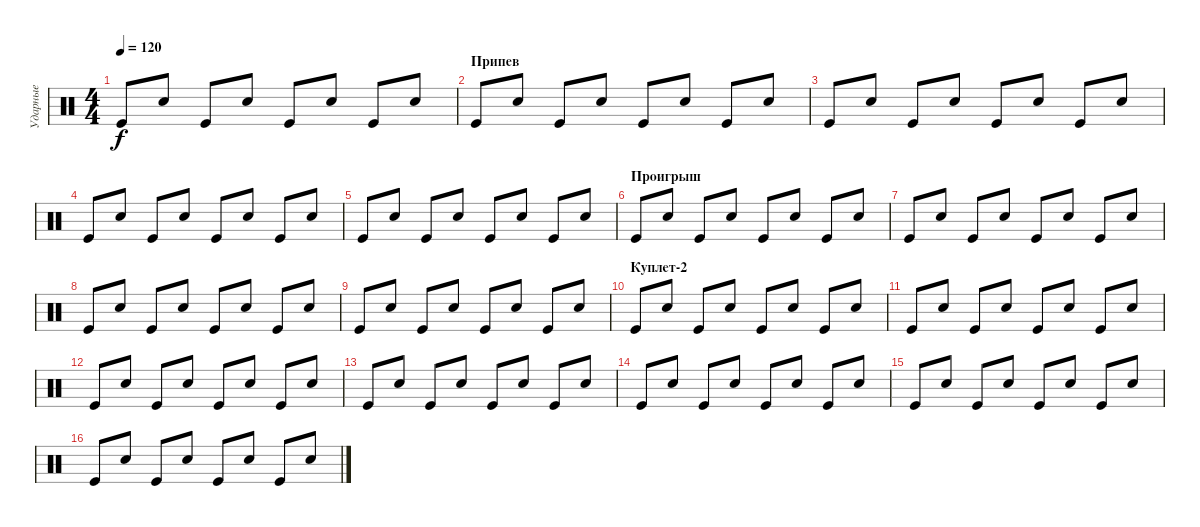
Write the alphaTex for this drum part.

\track ("Ударные" "Ударные") {instrument percussion}
\staff {score}
\articulation defaults
\ts (4 4)
\tempo 120
\clef neutral
\ks c "Kick (hit)".8{dy f} "Electric Snare (hit)".8 "Kick (hit)".8 "Electric Snare (hit)".8 "Kick (hit)".8 "Electric Snare (hit)".8 "Kick (hit)".8 "Electric Snare (hit)".8
|
\section ("" "Припев")
"Kick (hit)".8 "Electric Snare (hit)".8 "Kick (hit)".8 "Electric Snare (hit)".8 "Kick (hit)".8 "Electric Snare (hit)".8 "Kick (hit)".8 "Electric Snare (hit)".8 |
"Kick (hit)".8 "Electric Snare (hit)".8 "Kick (hit)".8 "Electric Snare (hit)".8 "Kick (hit)".8 "Electric Snare (hit)".8 "Kick (hit)".8 "Electric Snare (hit)".8 |
"Kick (hit)".8 "Electric Snare (hit)".8 "Kick (hit)".8 "Electric Snare (hit)".8 "Kick (hit)".8 "Electric Snare (hit)".8 "Kick (hit)".8 "Electric Snare (hit)".8 |
"Kick (hit)".8 "Electric Snare (hit)".8 "Kick (hit)".8 "Electric Snare (hit)".8 "Kick (hit)".8 "Electric Snare (hit)".8 "Kick (hit)".8 "Electric Snare (hit)".8 |
\section ("" "Проигрыш")
"Kick (hit)".8 "Electric Snare (hit)".8 "Kick (hit)".8 "Electric Snare (hit)".8 "Kick (hit)".8 "Electric Snare (hit)".8 "Kick (hit)".8 "Electric Snare (hit)".8 |
"Kick (hit)".8 "Electric Snare (hit)".8 "Kick (hit)".8 "Electric Snare (hit)".8 "Kick (hit)".8 "Electric Snare (hit)".8 "Kick (hit)".8 "Electric Snare (hit)".8 |
"Kick (hit)".8 "Electric Snare (hit)".8 "Kick (hit)".8 "Electric Snare (hit)".8 "Kick (hit)".8 "Electric Snare (hit)".8 "Kick (hit)".8 "Electric Snare (hit)".8 |
"Kick (hit)".8 "Electric Snare (hit)".8 "Kick (hit)".8 "Electric Snare (hit)".8 "Kick (hit)".8 "Electric Snare (hit)".8 "Kick (hit)".8 "Electric Snare (hit)".8 |
\section ("" "Куплет-2")
"Kick (hit)".8 "Electric Snare (hit)".8 "Kick (hit)".8 "Electric Snare (hit)".8 "Kick (hit)".8 "Electric Snare (hit)".8 "Kick (hit)".8 "Electric Snare (hit)".8 |
"Kick (hit)".8 "Electric Snare (hit)".8 "Kick (hit)".8 "Electric Snare (hit)".8 "Kick (hit)".8 "Electric Snare (hit)".8 "Kick (hit)".8 "Electric Snare (hit)".8 |
"Kick (hit)".8 "Electric Snare (hit)".8 "Kick (hit)".8 "Electric Snare (hit)".8 "Kick (hit)".8 "Electric Snare (hit)".8 "Kick (hit)".8 "Electric Snare (hit)".8 |
"Kick (hit)".8 "Electric Snare (hit)".8 "Kick (hit)".8 "Electric Snare (hit)".8 "Kick (hit)".8 "Electric Snare (hit)".8 "Kick (hit)".8 "Electric Snare (hit)".8 |
"Kick (hit)".8 "Electric Snare (hit)".8 "Kick (hit)".8 "Electric Snare (hit)".8 "Kick (hit)".8 "Electric Snare (hit)".8 "Kick (hit)".8 "Electric Snare (hit)".8 |
"Kick (hit)".8 "Electric Snare (hit)".8 "Kick (hit)".8 "Electric Snare (hit)".8 "Kick (hit)".8 "Electric Snare (hit)".8 "Kick (hit)".8 "Electric Snare (hit)".8 |
"Kick (hit)".8 "Electric Snare (hit)".8 "Kick (hit)".8 "Electric Snare (hit)".8 "Kick (hit)".8 "Electric Snare (hit)".8 "Kick (hit)".8 "Electric Snare (hit)".8
